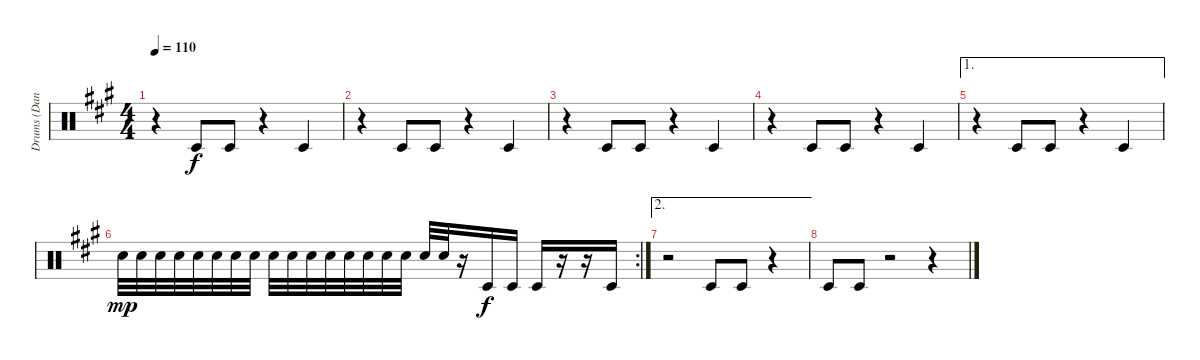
\track ("Drums (Dan Rieser)" "Drums (Dan") {instrument percussion}
\staff {score}
\articulation defaults
\ts (4 4)
\tempo 110
\clef neutral
\ks a
r.4{dy f} "Timbale low (hit)".8 "Timbale low (hit)".8 r.4 "Timbale low (hit)".4 |
r.4 "Timbale low (hit)".8 "Timbale low (hit)".8 r.4 "Timbale low (hit)".4 |
r.4 "Timbale low (hit)".8 "Timbale low (hit)".8 r.4 "Timbale low (hit)".4 |
r.4 "Timbale low (hit)".8 "Timbale low (hit)".8 r.4 "Timbale low (hit)".4 |
\ae 1
r.4 "Timbale low (hit)".8 "Timbale low (hit)".8 r.4 "Timbale low (hit)".4 |
\rc 2 "Snare (hit) 2".32{dy mp} "Snare (hit) 2".32 "Snare (hit) 2".32 "Snare (hit) 2".32 "Snare (hit) 2".32 "Snare (hit) 2".32 "Snare (hit) 2".32 "Snare (hit) 2".32 "Snare (hit) 2".32 "Snare (hit) 2".32 "Snare (hit) 2".32 "Snare (hit) 2".32 "Snare (hit) 2".32 "Snare (hit) 2".32 "Snare (hit) 2".32 "Snare (hit) 2".32 "Snare (hit) 2".32 "Snare (hit) 2".32
r.16 "Timbale low (hit)".16{dy f} "Timbale low (hit)".16 "Timbale low (hit)".16 r.16 r.16 "Timbale low (hit)".16 |
\ae 2
r.2 "Timbale low (hit)".8 "Timbale low (hit)".8 r.4 |
"Timbale low (hit)".8 "Timbale low (hit)".8 r.2 r.4
